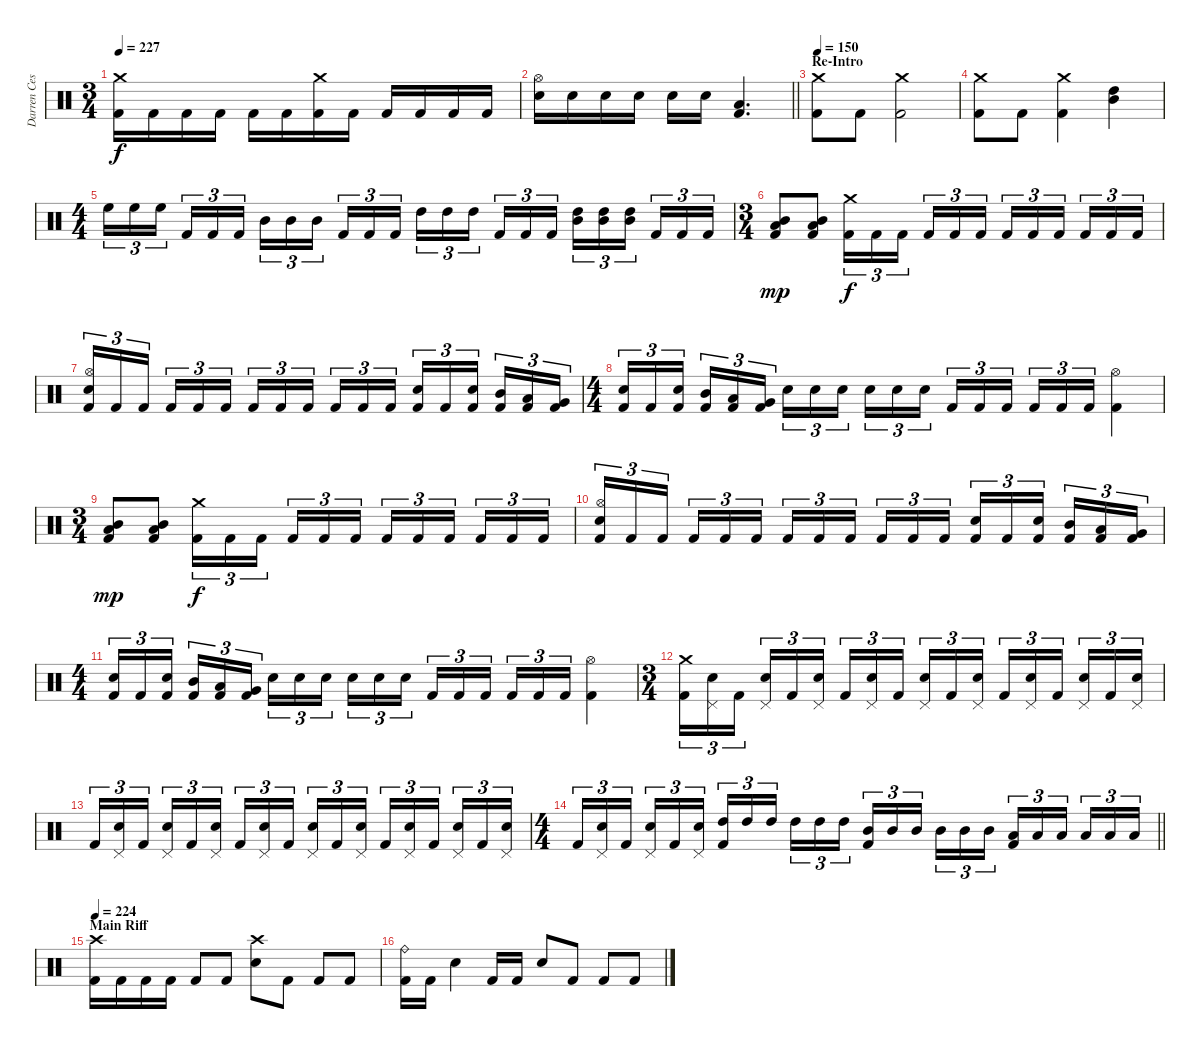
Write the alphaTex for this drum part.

\track ("Darren Cesca" "Darren Ces") {instrument percussion}
\staff {score}
\articulation defaults
\ts (3 4)
\tempo 227
\clef neutral
\ks c
("Crash medium (hit)" "Kick (hit) 2").16{dy f} "Kick (hit) 2".16 "Kick (hit) 2".16 "Kick (hit) 2".16 "Kick (hit) 2".16 "Kick (hit) 2".16 ("Crash medium (hit)" "Kick (hit) 2").16 "Kick (hit) 2".16 "Kick (hit) 2".16 "Kick (hit) 2".16 "Kick (hit) 2".16 "Kick (hit) 2".16 |
\barLineRight lightlight
("Hi-Hat (open)" "Electric Snare (hit)").16 "Electric Snare (hit)".16 "Electric Snare (hit)".16 "Electric Snare (hit)".16 "Electric Snare (hit)".16 "Electric Snare (hit)".16 ("Low Tom (hit)" "Kick (hit) 2").4{d} |
\section ("" "Re-Intro")
\tempo 150
("Crash medium (hit)" "Kick (hit) 2").8 "Kick (hit) 2".8 ("Crash medium (hit)" "Kick (hit) 2").2 |
("Crash medium (hit)" "Kick (hit) 2").8 "Kick (hit) 2".8 ("Crash medium (hit)" "Kick (hit) 2").4 ("High Tom (hit)" "Mid Tom (hit)").4 |
\ts (4 4)
"High Floor Tom (hit)".16{tu (3 2)} "High Floor Tom (hit)".16{tu (3 2)} "High Floor Tom (hit)".16{tu (3 2) beam splitsecondary} "Kick (hit) 2".16{tu (3 2)} "Kick (hit) 2".16{tu (3 2)} "Kick (hit) 2".16{tu (3 2)} "Mid Tom (hit)".16{tu (3 2)} "Mid Tom (hit)".16{tu (3 2)} "Mid Tom (hit)".16{tu (3 2) beam splitsecondary} "Kick (hit) 2".16{tu (3 2)} "Kick (hit) 2".16{tu (3 2)} "Kick (hit) 2".16{tu (3 2)} "High Tom (hit)".16{tu (3 2)} "High Tom (hit)".16{tu (3 2)} "High Tom (hit)".16{tu (3 2) beam splitsecondary} "Kick (hit) 2".16{tu (3 2)} "Kick (hit) 2".16{tu (3 2)} "Kick (hit) 2".16{tu (3 2)} ("High Tom (hit)" "Mid Tom (hit)").16{tu (3 2)} ("High Tom (hit)" "Mid Tom (hit)").16{tu (3 2)} ("High Tom (hit)" "Mid Tom (hit)").16{tu (3 2) beam splitsecondary} "Kick (hit) 2".16{tu (3 2)} "Kick (hit) 2".16{tu (3 2)} "Kick (hit) 2".16{tu (3 2)} |
\ts (3 4)
("Low Tom (hit)" "Mid Tom (hit)" "Kick (hit) 2").8{dy mp} ("Low Tom (hit)" "Mid Tom (hit)" "Kick (hit) 2").8 ("Crash medium (hit)" "Kick (hit) 2").16{tu (3 2) dy f} "Kick (hit) 2".16{tu (3 2)} "Kick (hit) 2".16{tu (3 2) beam splitsecondary} "Kick (hit) 2".16{tu (3 2)} "Kick (hit) 2".16{tu (3 2)} "Kick (hit) 2".16{tu (3 2)} "Kick (hit) 2".16{tu (3 2)} "Kick (hit) 2".16{tu (3 2)} "Kick (hit) 2".16{tu (3 2) beam splitsecondary} "Kick (hit) 2".16{tu (3 2)} "Kick (hit) 2".16{tu (3 2)} "Kick (hit) 2".16{tu (3 2)} |
("Hi-Hat (open)" "Electric Snare (hit)" "Kick (hit) 2").16{tu (3 2)} "Kick (hit) 2".16{tu (3 2)} "Kick (hit) 2".16{tu (3 2) beam splitsecondary} "Kick (hit) 2".16{tu (3 2)} "Kick (hit) 2".16{tu (3 2)} "Kick (hit) 2".16{tu (3 2)} "Kick (hit) 2".16{tu (3 2)} "Kick (hit) 2".16{tu (3 2)} "Kick (hit) 2".16{tu (3 2) beam splitsecondary} "Kick (hit) 2".16{tu (3 2)} "Kick (hit) 2".16{tu (3 2)} "Kick (hit) 2".16{tu (3 2)} ("Electric Snare (hit)" "Kick (hit) 2").16{tu (3 2)} "Kick (hit) 2".16{tu (3 2)} ("Electric Snare (hit)" "Kick (hit) 2").16{tu (3 2) beam splitsecondary} ("Mid Tom (hit)" "Kick (hit) 2").16{tu (3 2)} ("Low Tom (hit)" "Kick (hit) 2").16{tu (3 2)} ("Very Low Tom (hit)" "Kick (hit) 2").16{tu (3 2)} |
\ts (4 4)
("Electric Snare (hit)" "Kick (hit) 2").16{tu (3 2)} "Kick (hit) 2".16{tu (3 2)} ("Electric Snare (hit)" "Kick (hit) 2").16{tu (3 2) beam splitsecondary} ("Mid Tom (hit)" "Kick (hit) 2").16{tu (3 2)} ("Low Tom (hit)" "Kick (hit) 2").16{tu (3 2)} ("Very Low Tom (hit)" "Kick (hit) 2").16{tu (3 2)} "Electric Snare (hit)".16{tu (3 2)} "Electric Snare (hit)".16{tu (3 2)} "Electric Snare (hit)".16{tu (3 2) beam splitsecondary} "Electric Snare (hit)".16{tu (3 2)} "Electric Snare (hit)".16{tu (3 2)} "Electric Snare (hit)".16{tu (3 2)} "Kick (hit) 2".16{tu (3 2)} "Kick (hit) 2".16{tu (3 2)} "Kick (hit) 2".16{tu (3 2) beam splitsecondary} "Kick (hit) 2".16{tu (3 2)} "Kick (hit) 2".16{tu (3 2)} "Kick (hit) 2".16{tu (3 2)} ("Hi-Hat (open)" "Kick (hit) 2").4 |
\ts (3 4)
("Low Tom (hit)" "Mid Tom (hit)" "Kick (hit) 2").8{dy mp} ("Low Tom (hit)" "Mid Tom (hit)" "Kick (hit) 2").8 ("Crash medium (hit)" "Kick (hit) 2").16{tu (3 2) dy f} "Kick (hit) 2".16{tu (3 2)} "Kick (hit) 2".16{tu (3 2) beam splitsecondary} "Kick (hit) 2".16{tu (3 2)} "Kick (hit) 2".16{tu (3 2)} "Kick (hit) 2".16{tu (3 2)} "Kick (hit) 2".16{tu (3 2)} "Kick (hit) 2".16{tu (3 2)} "Kick (hit) 2".16{tu (3 2) beam splitsecondary} "Kick (hit) 2".16{tu (3 2)} "Kick (hit) 2".16{tu (3 2)} "Kick (hit) 2".16{tu (3 2)} |
("Hi-Hat (open)" "Electric Snare (hit)" "Kick (hit) 2").16{tu (3 2)} "Kick (hit) 2".16{tu (3 2)} "Kick (hit) 2".16{tu (3 2) beam splitsecondary} "Kick (hit) 2".16{tu (3 2)} "Kick (hit) 2".16{tu (3 2)} "Kick (hit) 2".16{tu (3 2)} "Kick (hit) 2".16{tu (3 2)} "Kick (hit) 2".16{tu (3 2)} "Kick (hit) 2".16{tu (3 2) beam splitsecondary} "Kick (hit) 2".16{tu (3 2)} "Kick (hit) 2".16{tu (3 2)} "Kick (hit) 2".16{tu (3 2)} ("Electric Snare (hit)" "Kick (hit) 2").16{tu (3 2)} "Kick (hit) 2".16{tu (3 2)} ("Electric Snare (hit)" "Kick (hit) 2").16{tu (3 2) beam splitsecondary} ("Mid Tom (hit)" "Kick (hit) 2").16{tu (3 2)} ("Low Tom (hit)" "Kick (hit) 2").16{tu (3 2)} ("Very Low Tom (hit)" "Kick (hit) 2").16{tu (3 2)} |
\ts (4 4)
("Electric Snare (hit)" "Kick (hit) 2").16{tu (3 2)} "Kick (hit) 2".16{tu (3 2)} ("Electric Snare (hit)" "Kick (hit) 2").16{tu (3 2) beam splitsecondary} ("Mid Tom (hit)" "Kick (hit) 2").16{tu (3 2)} ("Low Tom (hit)" "Kick (hit) 2").16{tu (3 2)} ("Very Low Tom (hit)" "Kick (hit) 2").16{tu (3 2)} "Electric Snare (hit)".16{tu (3 2)} "Electric Snare (hit)".16{tu (3 2)} "Electric Snare (hit)".16{tu (3 2) beam splitsecondary} "Electric Snare (hit)".16{tu (3 2)} "Electric Snare (hit)".16{tu (3 2)} "Electric Snare (hit)".16{tu (3 2)} "Kick (hit) 2".16{tu (3 2)} "Kick (hit) 2".16{tu (3 2)} "Kick (hit) 2".16{tu (3 2) beam splitsecondary} "Kick (hit) 2".16{tu (3 2)} "Kick (hit) 2".16{tu (3 2)} "Kick (hit) 2".16{tu (3 2)} ("Hi-Hat (open)" "Kick (hit) 2").4 |
\ts (3 4)
("Crash medium (hit)" "Kick (hit) 2").16{tu (3 2)} ("Pedal Hi-Hat (hit)" "Electric Snare (hit)").16{tu (3 2)} "Kick (hit) 2".16{tu (3 2) beam splitsecondary} ("Pedal Hi-Hat (hit)" "Electric Snare (hit)").16{tu (3 2)} "Kick (hit) 2".16{tu (3 2)} ("Pedal Hi-Hat (hit)" "Electric Snare (hit)").16{tu (3 2)} "Kick (hit) 2".16{tu (3 2)} ("Pedal Hi-Hat (hit)" "Electric Snare (hit)").16{tu (3 2)} "Kick (hit) 2".16{tu (3 2) beam splitsecondary} ("Pedal Hi-Hat (hit)" "Electric Snare (hit)").16{tu (3 2)} "Kick (hit) 2".16{tu (3 2)} ("Pedal Hi-Hat (hit)" "Electric Snare (hit)").16{tu (3 2)} "Kick (hit) 2".16{tu (3 2)} ("Pedal Hi-Hat (hit)" "Electric Snare (hit)").16{tu (3 2)} "Kick (hit) 2".16{tu (3 2) beam splitsecondary} ("Pedal Hi-Hat (hit)" "Electric Snare (hit)").16{tu (3 2)} "Kick (hit) 2".16{tu (3 2)} ("Pedal Hi-Hat (hit)" "Electric Snare (hit)").16{tu (3 2)} |
"Kick (hit) 2".16{tu (3 2)} ("Pedal Hi-Hat (hit)" "Electric Snare (hit)").16{tu (3 2)} "Kick (hit) 2".16{tu (3 2) beam splitsecondary} ("Pedal Hi-Hat (hit)" "Electric Snare (hit)").16{tu (3 2)} "Kick (hit) 2".16{tu (3 2)} ("Pedal Hi-Hat (hit)" "Electric Snare (hit)").16{tu (3 2)} "Kick (hit) 2".16{tu (3 2)} ("Pedal Hi-Hat (hit)" "Electric Snare (hit)").16{tu (3 2)} "Kick (hit) 2".16{tu (3 2) beam splitsecondary} ("Pedal Hi-Hat (hit)" "Electric Snare (hit)").16{tu (3 2)} "Kick (hit) 2".16{tu (3 2)} ("Pedal Hi-Hat (hit)" "Electric Snare (hit)").16{tu (3 2)} "Kick (hit) 2".16{tu (3 2)} ("Pedal Hi-Hat (hit)" "Electric Snare (hit)").16{tu (3 2)} "Kick (hit) 2".16{tu (3 2) beam splitsecondary} ("Pedal Hi-Hat (hit)" "Electric Snare (hit)").16{tu (3 2)} "Kick (hit) 2".16{tu (3 2)} ("Pedal Hi-Hat (hit)" "Electric Snare (hit)").16{tu (3 2)} |
\ts (4 4)
\barLineRight lightlight "Kick (hit) 2".16{tu (3 2)}
("Pedal Hi-Hat (hit)" "Electric Snare (hit)").16{tu (3 2)} "Kick (hit) 2".16{tu (3 2) beam splitsecondary} ("Pedal Hi-Hat (hit)" "Electric Snare (hit)").16{tu (3 2)} "Kick (hit) 2".16{tu (3 2)} ("Pedal Hi-Hat (hit)" "Electric Snare (hit)").16{tu (3 2)} ("High Tom (hit)" "Kick (hit) 2").16{tu (3 2)} "High Tom (hit)".16{tu (3 2)} "High Tom (hit)".16{tu (3 2) beam splitsecondary} "High Tom (hit)".16{tu (3 2)} "High Tom (hit)".16{tu (3 2)} "High Tom (hit)".16{tu (3 2)} ("Mid Tom (hit)" "Kick (hit) 2").16{tu (3 2)} "Mid Tom (hit)".16{tu (3 2)} "Mid Tom (hit)".16{tu (3 2) beam splitsecondary} "Mid Tom (hit)".16{tu (3 2)} "Mid Tom (hit)".16{tu (3 2)} "Mid Tom (hit)".16{tu (3 2)} ("Low Tom (hit)" "Kick (hit) 2").16{tu (3 2)} "Low Tom (hit)".16{tu (3 2)} "Low Tom (hit)".16{tu (3 2) beam splitsecondary} "Low Tom (hit)".16{tu (3 2)} "Low Tom (hit)".16{tu (3 2)} "Low Tom (hit)".16{tu (3 2)} |
\section ("" "Main Riff")
\tempo 224
("Crash high (hit)" "Kick (hit) 2").16 "Kick (hit) 2".16 "Kick (hit) 2".16 "Kick (hit) 2".16 "Kick (hit) 2".8 "Kick (hit) 2".8 ("Crash high (hit)" "Electric Snare (hit)").8 "Kick (hit) 2".8 "Kick (hit) 2".8 "Kick (hit) 2".8 |
("Ride (bell)" "Kick (hit) 2").16 "Kick (hit) 2".16 "Electric Snare (hit)".4 "Kick (hit) 2".16 "Kick (hit) 2".16 "Electric Snare (hit)".8 "Kick (hit) 2".8 "Kick (hit) 2".8 "Kick (hit) 2".8
